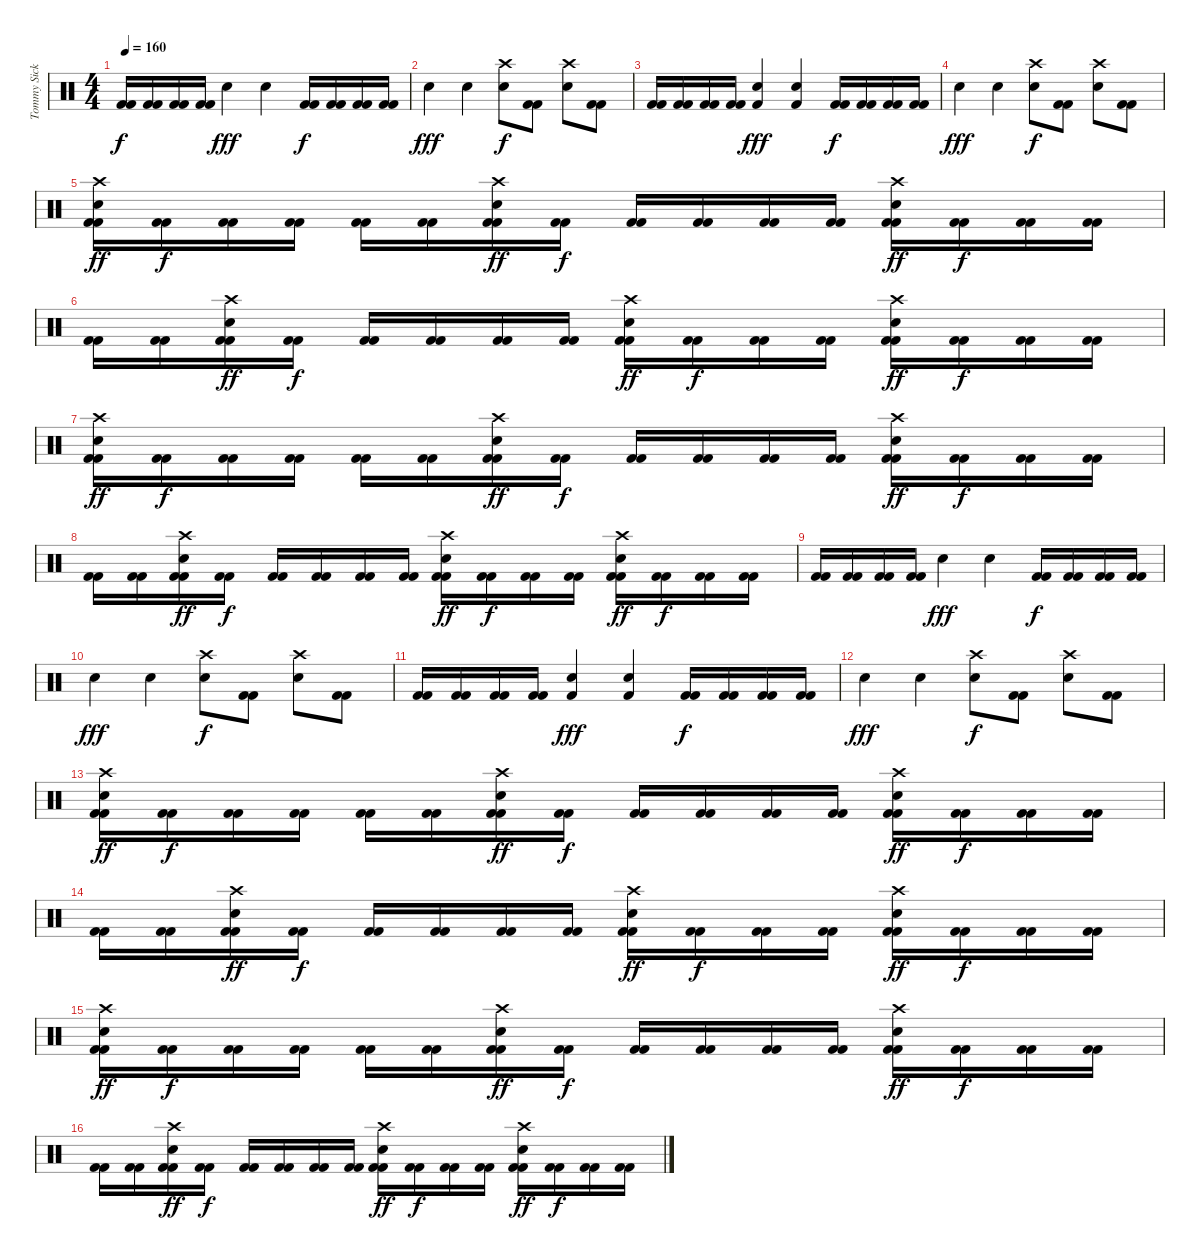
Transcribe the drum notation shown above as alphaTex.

\track ("Tommy Sickles" "Tommy Sick") {instrument percussion}
\staff {score}
\articulation defaults
\ts (4 4)
\tempo 160
\clef neutral
\ks c
("Kick (hit) 2" "Kick (hit) 2").16{dy f} ("Kick (hit) 2" "Kick (hit) 2").16 ("Kick (hit) 2" "Kick (hit) 2").16 ("Kick (hit) 2" "Kick (hit) 2").16 "Electric Snare (hit)".4{dy fff} "Electric Snare (hit)".4 ("Kick (hit) 2" "Kick (hit) 2").16{dy f} ("Kick (hit) 2" "Kick (hit) 2").16 ("Kick (hit) 2" "Kick (hit) 2").16 ("Kick (hit) 2" "Kick (hit) 2").16 |
"Electric Snare (hit)".4{dy fff} "Electric Snare (hit)".4 ("Crash high (hit)" "Electric Snare (hit)").8{dy f} ("Kick (hit) 2" "Kick (hit) 2").8 ("Crash high (hit)" "Electric Snare (hit)").8 ("Kick (hit) 2" "Kick (hit) 2").8 |
("Kick (hit) 2" "Kick (hit) 2").16 ("Kick (hit) 2" "Kick (hit) 2").16 ("Kick (hit) 2" "Kick (hit) 2").16 ("Kick (hit) 2" "Kick (hit) 2").16 ("Kick (hit) 2" "Electric Snare (hit)").4{dy fff} ("Kick (hit) 2" "Electric Snare (hit)").4 ("Kick (hit) 2" "Kick (hit) 2").16{dy f} ("Kick (hit) 2" "Kick (hit) 2").16 ("Kick (hit) 2" "Kick (hit) 2").16 ("Kick (hit) 2" "Kick (hit) 2").16 |
"Electric Snare (hit)".4{dy fff} "Electric Snare (hit)".4 ("Crash high (hit)" "Electric Snare (hit)").8{dy f} ("Kick (hit) 2" "Kick (hit) 2").8 ("Crash high (hit)" "Electric Snare (hit)").8 ("Kick (hit) 2" "Kick (hit) 2").8 |
("Crash high (hit)" "Kick (hit) 2" "Kick (hit) 2" "Electric Snare (hit)").16{dy ff} ("Kick (hit) 2" "Kick (hit) 2").16{dy f} ("Kick (hit) 2" "Kick (hit) 2").16 ("Kick (hit) 2" "Kick (hit) 2").16 ("Kick (hit) 2" "Kick (hit) 2").16 ("Kick (hit) 2" "Kick (hit) 2").16 ("Crash high (hit)" "Kick (hit) 2" "Kick (hit) 2" "Electric Snare (hit)").16{dy ff} ("Kick (hit) 2" "Kick (hit) 2").16{dy f} ("Kick (hit) 2" "Kick (hit) 2").16 ("Kick (hit) 2" "Kick (hit) 2").16 ("Kick (hit) 2" "Kick (hit) 2").16 ("Kick (hit) 2" "Kick (hit) 2").16 ("Crash high (hit)" "Kick (hit) 2" "Kick (hit) 2" "Electric Snare (hit)").16{dy ff} ("Kick (hit) 2" "Kick (hit) 2").16{dy f} ("Kick (hit) 2" "Kick (hit) 2").16 ("Kick (hit) 2" "Kick (hit) 2").16 |
("Kick (hit) 2" "Kick (hit) 2").16 ("Kick (hit) 2" "Kick (hit) 2").16 ("Crash high (hit)" "Kick (hit) 2" "Kick (hit) 2" "Electric Snare (hit)").16{dy ff} ("Kick (hit) 2" "Kick (hit) 2").16{dy f} ("Kick (hit) 2" "Kick (hit) 2").16 ("Kick (hit) 2" "Kick (hit) 2").16 ("Kick (hit) 2" "Kick (hit) 2").16 ("Kick (hit) 2" "Kick (hit) 2").16 ("Crash high (hit)" "Kick (hit) 2" "Kick (hit) 2" "Electric Snare (hit)").16{dy ff} ("Kick (hit) 2" "Kick (hit) 2").16{dy f} ("Kick (hit) 2" "Kick (hit) 2").16 ("Kick (hit) 2" "Kick (hit) 2").16 ("Crash high (hit)" "Kick (hit) 2" "Kick (hit) 2" "Electric Snare (hit)").16{dy ff} ("Kick (hit) 2" "Kick (hit) 2").16{dy f} ("Kick (hit) 2" "Kick (hit) 2").16 ("Kick (hit) 2" "Kick (hit) 2").16 |
("Crash high (hit)" "Kick (hit) 2" "Kick (hit) 2" "Electric Snare (hit)").16{dy ff} ("Kick (hit) 2" "Kick (hit) 2").16{dy f} ("Kick (hit) 2" "Kick (hit) 2").16 ("Kick (hit) 2" "Kick (hit) 2").16 ("Kick (hit) 2" "Kick (hit) 2").16 ("Kick (hit) 2" "Kick (hit) 2").16 ("Crash high (hit)" "Kick (hit) 2" "Kick (hit) 2" "Electric Snare (hit)").16{dy ff} ("Kick (hit) 2" "Kick (hit) 2").16{dy f} ("Kick (hit) 2" "Kick (hit) 2").16 ("Kick (hit) 2" "Kick (hit) 2").16 ("Kick (hit) 2" "Kick (hit) 2").16 ("Kick (hit) 2" "Kick (hit) 2").16 ("Crash high (hit)" "Kick (hit) 2" "Kick (hit) 2" "Electric Snare (hit)").16{dy ff} ("Kick (hit) 2" "Kick (hit) 2").16{dy f} ("Kick (hit) 2" "Kick (hit) 2").16 ("Kick (hit) 2" "Kick (hit) 2").16 |
("Kick (hit) 2" "Kick (hit) 2").16 ("Kick (hit) 2" "Kick (hit) 2").16 ("Crash high (hit)" "Kick (hit) 2" "Kick (hit) 2" "Electric Snare (hit)").16{dy ff} ("Kick (hit) 2" "Kick (hit) 2").16{dy f} ("Kick (hit) 2" "Kick (hit) 2").16 ("Kick (hit) 2" "Kick (hit) 2").16 ("Kick (hit) 2" "Kick (hit) 2").16 ("Kick (hit) 2" "Kick (hit) 2").16 ("Crash high (hit)" "Kick (hit) 2" "Kick (hit) 2" "Electric Snare (hit)").16{dy ff} ("Kick (hit) 2" "Kick (hit) 2").16{dy f} ("Kick (hit) 2" "Kick (hit) 2").16 ("Kick (hit) 2" "Kick (hit) 2").16 ("Crash high (hit)" "Kick (hit) 2" "Kick (hit) 2" "Electric Snare (hit)").16{dy ff} ("Kick (hit) 2" "Kick (hit) 2").16{dy f} ("Kick (hit) 2" "Kick (hit) 2").16 ("Kick (hit) 2" "Kick (hit) 2").16 |
("Kick (hit) 2" "Kick (hit) 2").16 ("Kick (hit) 2" "Kick (hit) 2").16 ("Kick (hit) 2" "Kick (hit) 2").16 ("Kick (hit) 2" "Kick (hit) 2").16 "Electric Snare (hit)".4{dy fff} "Electric Snare (hit)".4 ("Kick (hit) 2" "Kick (hit) 2").16{dy f} ("Kick (hit) 2" "Kick (hit) 2").16 ("Kick (hit) 2" "Kick (hit) 2").16 ("Kick (hit) 2" "Kick (hit) 2").16 |
"Electric Snare (hit)".4{dy fff} "Electric Snare (hit)".4 ("Crash high (hit)" "Electric Snare (hit)").8{dy f} ("Kick (hit) 2" "Kick (hit) 2").8 ("Crash high (hit)" "Electric Snare (hit)").8 ("Kick (hit) 2" "Kick (hit) 2").8 |
("Kick (hit) 2" "Kick (hit) 2").16 ("Kick (hit) 2" "Kick (hit) 2").16 ("Kick (hit) 2" "Kick (hit) 2").16 ("Kick (hit) 2" "Kick (hit) 2").16 ("Kick (hit) 2" "Electric Snare (hit)").4{dy fff} ("Kick (hit) 2" "Electric Snare (hit)").4 ("Kick (hit) 2" "Kick (hit) 2").16{dy f} ("Kick (hit) 2" "Kick (hit) 2").16 ("Kick (hit) 2" "Kick (hit) 2").16 ("Kick (hit) 2" "Kick (hit) 2").16 |
"Electric Snare (hit)".4{dy fff} "Electric Snare (hit)".4 ("Crash high (hit)" "Electric Snare (hit)").8{dy f} ("Kick (hit) 2" "Kick (hit) 2").8 ("Crash high (hit)" "Electric Snare (hit)").8 ("Kick (hit) 2" "Kick (hit) 2").8 |
("Crash high (hit)" "Kick (hit) 2" "Kick (hit) 2" "Electric Snare (hit)").16{dy ff} ("Kick (hit) 2" "Kick (hit) 2").16{dy f} ("Kick (hit) 2" "Kick (hit) 2").16 ("Kick (hit) 2" "Kick (hit) 2").16 ("Kick (hit) 2" "Kick (hit) 2").16 ("Kick (hit) 2" "Kick (hit) 2").16 ("Crash high (hit)" "Kick (hit) 2" "Kick (hit) 2" "Electric Snare (hit)").16{dy ff} ("Kick (hit) 2" "Kick (hit) 2").16{dy f} ("Kick (hit) 2" "Kick (hit) 2").16 ("Kick (hit) 2" "Kick (hit) 2").16 ("Kick (hit) 2" "Kick (hit) 2").16 ("Kick (hit) 2" "Kick (hit) 2").16 ("Crash high (hit)" "Kick (hit) 2" "Kick (hit) 2" "Electric Snare (hit)").16{dy ff} ("Kick (hit) 2" "Kick (hit) 2").16{dy f} ("Kick (hit) 2" "Kick (hit) 2").16 ("Kick (hit) 2" "Kick (hit) 2").16 |
("Kick (hit) 2" "Kick (hit) 2").16 ("Kick (hit) 2" "Kick (hit) 2").16 ("Crash high (hit)" "Kick (hit) 2" "Kick (hit) 2" "Electric Snare (hit)").16{dy ff} ("Kick (hit) 2" "Kick (hit) 2").16{dy f} ("Kick (hit) 2" "Kick (hit) 2").16 ("Kick (hit) 2" "Kick (hit) 2").16 ("Kick (hit) 2" "Kick (hit) 2").16 ("Kick (hit) 2" "Kick (hit) 2").16 ("Crash high (hit)" "Kick (hit) 2" "Kick (hit) 2" "Electric Snare (hit)").16{dy ff} ("Kick (hit) 2" "Kick (hit) 2").16{dy f} ("Kick (hit) 2" "Kick (hit) 2").16 ("Kick (hit) 2" "Kick (hit) 2").16 ("Crash high (hit)" "Kick (hit) 2" "Kick (hit) 2" "Electric Snare (hit)").16{dy ff} ("Kick (hit) 2" "Kick (hit) 2").16{dy f} ("Kick (hit) 2" "Kick (hit) 2").16 ("Kick (hit) 2" "Kick (hit) 2").16 |
("Crash high (hit)" "Kick (hit) 2" "Kick (hit) 2" "Electric Snare (hit)").16{dy ff} ("Kick (hit) 2" "Kick (hit) 2").16{dy f} ("Kick (hit) 2" "Kick (hit) 2").16 ("Kick (hit) 2" "Kick (hit) 2").16 ("Kick (hit) 2" "Kick (hit) 2").16 ("Kick (hit) 2" "Kick (hit) 2").16 ("Crash high (hit)" "Kick (hit) 2" "Kick (hit) 2" "Electric Snare (hit)").16{dy ff} ("Kick (hit) 2" "Kick (hit) 2").16{dy f} ("Kick (hit) 2" "Kick (hit) 2").16 ("Kick (hit) 2" "Kick (hit) 2").16 ("Kick (hit) 2" "Kick (hit) 2").16 ("Kick (hit) 2" "Kick (hit) 2").16 ("Crash high (hit)" "Kick (hit) 2" "Kick (hit) 2" "Electric Snare (hit)").16{dy ff} ("Kick (hit) 2" "Kick (hit) 2").16{dy f} ("Kick (hit) 2" "Kick (hit) 2").16 ("Kick (hit) 2" "Kick (hit) 2").16 |
("Kick (hit) 2" "Kick (hit) 2").16 ("Kick (hit) 2" "Kick (hit) 2").16 ("Crash high (hit)" "Kick (hit) 2" "Kick (hit) 2" "Electric Snare (hit)").16{dy ff} ("Kick (hit) 2" "Kick (hit) 2").16{dy f} ("Kick (hit) 2" "Kick (hit) 2").16 ("Kick (hit) 2" "Kick (hit) 2").16 ("Kick (hit) 2" "Kick (hit) 2").16 ("Kick (hit) 2" "Kick (hit) 2").16 ("Crash high (hit)" "Kick (hit) 2" "Kick (hit) 2" "Electric Snare (hit)").16{dy ff} ("Kick (hit) 2" "Kick (hit) 2").16{dy f} ("Kick (hit) 2" "Kick (hit) 2").16 ("Kick (hit) 2" "Kick (hit) 2").16 ("Crash high (hit)" "Kick (hit) 2" "Kick (hit) 2" "Electric Snare (hit)").16{dy ff} ("Kick (hit) 2" "Kick (hit) 2").16{dy f} ("Kick (hit) 2" "Kick (hit) 2").16 ("Kick (hit) 2" "Kick (hit) 2").16
